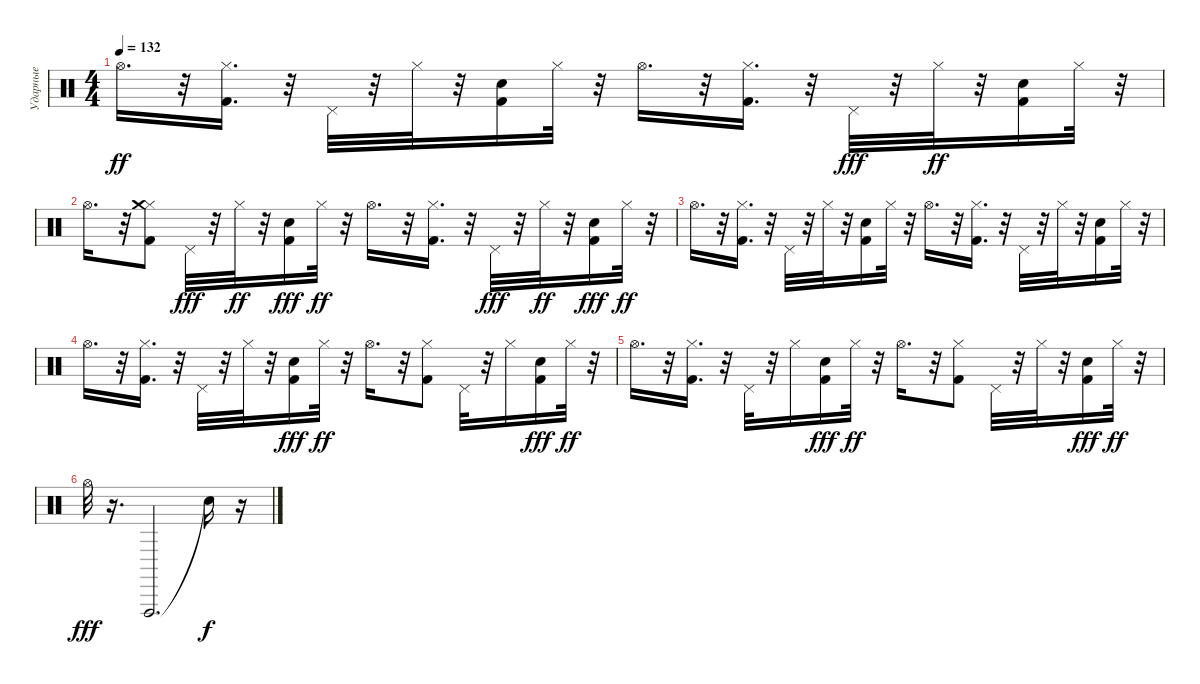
\track ("Ударные" "Ударные") {instrument percussion}
\staff {score}
\articulation defaults
\ts (4 4)
\tempo 132
\clef neutral
\ks c "Hi-Hat (open)".16{d dy ff}
r.32 ("Kick (hit) 2" "Hi-Hat (closed)").16{d} r.32 "Pedal Hi-Hat (hit)".32 r.32 "Hi-Hat (closed)".32 r.32 ("Kick (hit) 2" "Snare (hit) 2").16 "Hi-Hat (closed)".32 r.32 "Hi-Hat (open)".16{d} r.32 ("Kick (hit) 2" "Hi-Hat (closed)").16{d} r.32 "Pedal Hi-Hat (hit)".32{dy fff} r.32 "Hi-Hat (closed)".32{dy ff} r.32 ("Kick (hit) 2" "Snare (hit) 2").16 "Hi-Hat (closed)".32 r.32 |
"Hi-Hat (open)".16{d} r.32 ("Kick (hit) 2" "Hi-Hat (closed)" "Crash medium (hit)").8 "Pedal Hi-Hat (hit)".32{dy fff} r.32 "Hi-Hat (closed)".32{dy ff} r.32 ("Kick (hit) 2" "Snare (hit) 2").16{dy fff} "Hi-Hat (closed)".32{dy ff} r.32 "Hi-Hat (open)".16{d} r.32 ("Kick (hit) 2" "Hi-Hat (closed)").16{d} r.32 "Pedal Hi-Hat (hit)".32{dy fff} r.32 "Hi-Hat (closed)".32{dy ff} r.32 ("Kick (hit) 2" "Snare (hit) 2").16{dy fff} "Hi-Hat (closed)".32{dy ff} r.32 |
"Hi-Hat (open)".16{d} r.32 ("Kick (hit) 2" "Hi-Hat (closed)").16{d} r.32 "Pedal Hi-Hat (hit)".32 r.32 "Hi-Hat (closed)".32 r.32 ("Kick (hit) 2" "Snare (hit) 2").16 "Hi-Hat (closed)".32 r.32 "Hi-Hat (open)".16{d} r.32 ("Kick (hit) 2" "Hi-Hat (closed)").16{d} r.32 "Pedal Hi-Hat (hit)".32 r.32 "Hi-Hat (closed)".32 r.32 ("Kick (hit) 2" "Snare (hit) 2").16 "Hi-Hat (closed)".32 r.32 |
"Hi-Hat (open)".16{d} r.32 ("Kick (hit) 2" "Hi-Hat (closed)").16{d} r.32 "Pedal Hi-Hat (hit)".32 r.32 "Hi-Hat (closed)".32 r.32 ("Kick (hit) 2" "Snare (hit) 2").16{dy fff} "Hi-Hat (closed)".32{dy ff} r.32 "Hi-Hat (open)".16{d} r.32 ("Kick (hit) 2" "Hi-Hat (closed)").8 "Pedal Hi-Hat (hit)".32 r.32 "Hi-Hat (closed)".16 ("Kick (hit) 2" "Snare (hit) 2").16{dy fff} "Hi-Hat (closed)".32{dy ff} r.32 |
"Hi-Hat (open)".16{d} r.32 ("Kick (hit) 2" "Hi-Hat (closed)").16{d} r.32 "Pedal Hi-Hat (hit)".32 r.32 "Hi-Hat (closed)".16 ("Kick (hit) 2" "Snare (hit) 2").16{dy fff} "Hi-Hat (closed)".32{dy ff} r.32 "Hi-Hat (open)".16{d} r.32 ("Kick (hit) 2" "Hi-Hat (closed)").8 "Pedal Hi-Hat (hit)".32 r.32 "Hi-Hat (closed)".32 r.32 ("Kick (hit) 2" "Snare (hit) 2").16{dy fff} "Hi-Hat (closed)".32{dy ff} r.32 |
"Hi-Hat (open)".32{dy fff} r.16{d} "Vibraslap (hit)".2{d} "Snare (hit)"{t}.16{dy f} r.16
